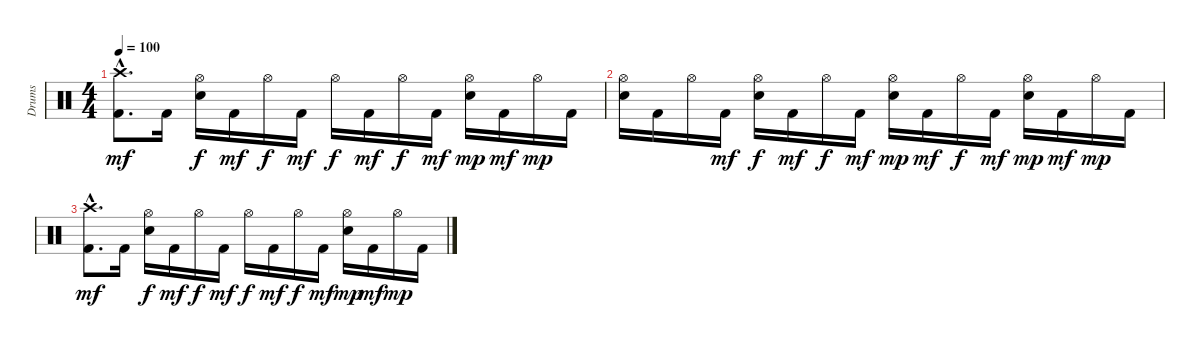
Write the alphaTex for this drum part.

\track ("Drums" "Drums") {instrument percussion}
\staff {score}
\articulation defaults
\ts (4 4)
\tempo 100
\clef neutral
\ks c
("Kick (hit) 2"{hac} "Crash high (hit)"{hac}).8{d dy mf} "Kick (hit) 2".16 ("Snare (hit) 2" "Hi-Hat (open)").16{dy f} "Kick (hit) 2".16{dy mf} "Hi-Hat (open)".16{dy f} "Kick (hit) 2".16{dy mf} "Hi-Hat (open)".16{dy f} "Kick (hit) 2".16{dy mf} "Hi-Hat (open)".16{dy f} "Kick (hit) 2".16{dy mf} ("Snare (hit) 2" "Hi-Hat (open)").16{dy mp} "Kick (hit) 2".16{dy mf} "Hi-Hat (open)".16{dy mp} "Kick (hit) 2".16 |
("Snare (hit) 2" "Hi-Hat (open)").16{volume 0} "Kick (hit) 2".16 "Hi-Hat (open)".16 "Kick (hit) 2".16{dy mf} ("Snare (hit) 2" "Hi-Hat (open)").16{dy f} "Kick (hit) 2".16{dy mf} "Hi-Hat (open)".16{dy f} "Kick (hit) 2".16{dy mf} ("Snare (hit) 2" "Hi-Hat (open)").16{dy mp} "Kick (hit) 2".16{dy mf} "Hi-Hat (open)".16{dy f} "Kick (hit) 2".16{dy mf} ("Snare (hit) 2" "Hi-Hat (open)").16{dy mp} "Kick (hit) 2".16{dy mf} "Hi-Hat (open)".16{dy mp} "Kick (hit) 2".16 |
("Kick (hit) 2"{hac} "Crash high (hit)"{hac}).8{d dy mf} "Kick (hit) 2".16 ("Snare (hit) 2" "Hi-Hat (open)").16{dy f} "Kick (hit) 2".16{dy mf} "Hi-Hat (open)".16{dy f} "Kick (hit) 2".16{dy mf} "Hi-Hat (open)".16{dy f} "Kick (hit) 2".16{dy mf} "Hi-Hat (open)".16{dy f} "Kick (hit) 2".16{dy mf} ("Snare (hit) 2" "Hi-Hat (open)").16{dy mp} "Kick (hit) 2".16{dy mf} "Hi-Hat (open)".16{dy mp} "Kick (hit) 2".16
